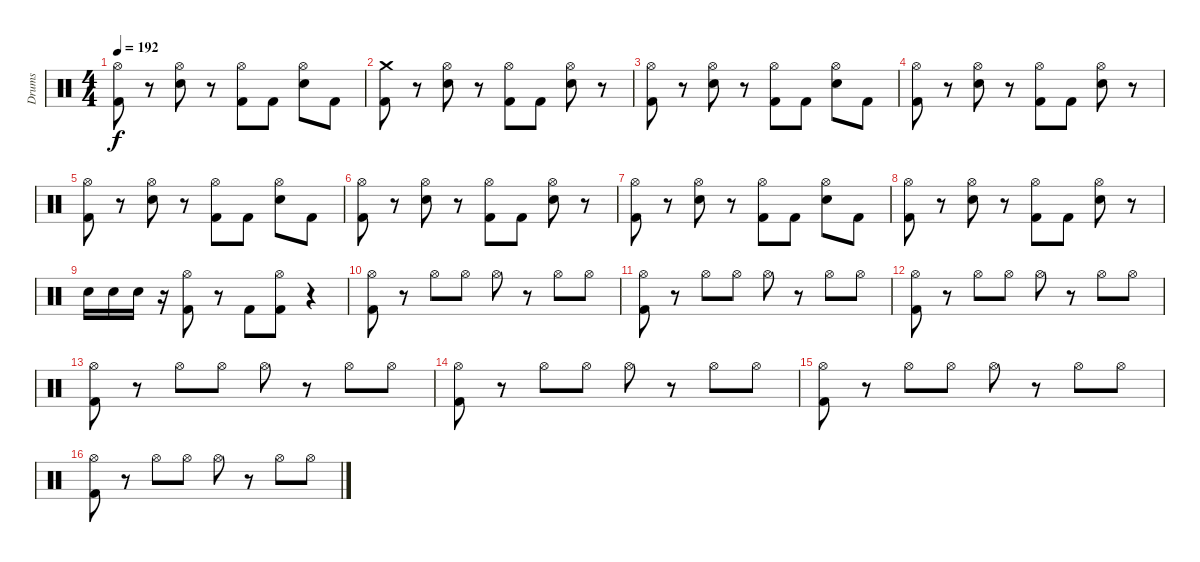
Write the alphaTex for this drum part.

\track ("Drums" "Drums") {instrument percussion}
\staff {score}
\articulation defaults
\ts (4 4)
\tempo 192
\clef neutral
\ks c
("Hi-Hat (open)" "Kick (hit) 2").8{dy f} r.8 ("Hi-Hat (open)" "Electric Snare (hit)").8 r.8 ("Hi-Hat (open)" "Kick (hit) 2").8 "Kick (hit) 2".8 ("Hi-Hat (open)" "Electric Snare (hit)").8 "Kick (hit) 2".8 |
("Crash medium (hit)" "Kick (hit) 2").8 r.8 ("Hi-Hat (open)" "Electric Snare (hit)").8 r.8 ("Hi-Hat (open)" "Kick (hit) 2").8 "Kick (hit) 2".8 ("Hi-Hat (open)" "Electric Snare (hit)").8 r.8 |
("Hi-Hat (open)" "Kick (hit) 2").8 r.8 ("Hi-Hat (open)" "Electric Snare (hit)").8 r.8 ("Hi-Hat (open)" "Kick (hit) 2").8 "Kick (hit) 2".8 ("Hi-Hat (open)" "Electric Snare (hit)").8 "Kick (hit) 2".8 |
("Hi-Hat (open)" "Kick (hit) 2").8 r.8 ("Hi-Hat (open)" "Electric Snare (hit)").8 r.8 ("Hi-Hat (open)" "Kick (hit) 2").8 "Kick (hit) 2".8 ("Hi-Hat (open)" "Electric Snare (hit)").8 r.8 |
("Hi-Hat (open)" "Kick (hit) 2").8 r.8 ("Hi-Hat (open)" "Electric Snare (hit)").8 r.8 ("Hi-Hat (open)" "Kick (hit) 2").8 "Kick (hit) 2".8 ("Hi-Hat (open)" "Electric Snare (hit)").8 "Kick (hit) 2".8 |
("Hi-Hat (open)" "Kick (hit) 2").8 r.8 ("Hi-Hat (open)" "Electric Snare (hit)").8 r.8 ("Hi-Hat (open)" "Kick (hit) 2").8 "Kick (hit) 2".8 ("Hi-Hat (open)" "Electric Snare (hit)").8 r.8 |
("Hi-Hat (open)" "Kick (hit) 2").8 r.8 ("Hi-Hat (open)" "Electric Snare (hit)").8 r.8 ("Hi-Hat (open)" "Kick (hit) 2").8 "Kick (hit) 2".8 ("Hi-Hat (open)" "Electric Snare (hit)").8 "Kick (hit) 2".8 |
("Hi-Hat (open)" "Kick (hit) 2").8 r.8 ("Hi-Hat (open)" "Electric Snare (hit)").8 r.8 ("Hi-Hat (open)" "Kick (hit) 2").8 "Kick (hit) 2".8 ("Hi-Hat (open)" "Electric Snare (hit)").8 r.8 |
"Snare (hit) 2".16 "Snare (hit) 2".16 "Electric Snare (hit)".16 r.16 ("Hi-Hat (open)" "Kick (hit) 2").8 r.8 "Kick (hit) 2".8 ("Hi-Hat (open)" "Kick (hit) 2").8 r.4 |
("Kick (hit) 2" "Hi-Hat (open)").8 r.8 "Hi-Hat (open)".8 "Hi-Hat (open)".8 "Hi-Hat (open)".8 r.8 "Hi-Hat (open)".8 "Hi-Hat (open)".8 |
("Kick (hit) 2" "Hi-Hat (open)").8 r.8 "Hi-Hat (open)".8 "Hi-Hat (open)".8 "Hi-Hat (open)".8 r.8 "Hi-Hat (open)".8 "Hi-Hat (open)".8 |
("Kick (hit) 2" "Hi-Hat (open)").8 r.8 "Hi-Hat (open)".8 "Hi-Hat (open)".8 "Hi-Hat (open)".8 r.8 "Hi-Hat (open)".8 "Hi-Hat (open)".8 |
("Kick (hit) 2" "Hi-Hat (open)").8 r.8 "Hi-Hat (open)".8 "Hi-Hat (open)".8 "Hi-Hat (open)".8 r.8 "Hi-Hat (open)".8 "Hi-Hat (open)".8 |
("Kick (hit) 2" "Hi-Hat (open)").8 r.8 "Hi-Hat (open)".8 "Hi-Hat (open)".8 "Hi-Hat (open)".8 r.8 "Hi-Hat (open)".8 "Hi-Hat (open)".8 |
("Kick (hit) 2" "Hi-Hat (open)").8 r.8 "Hi-Hat (open)".8 "Hi-Hat (open)".8 "Hi-Hat (open)".8 r.8 "Hi-Hat (open)".8 "Hi-Hat (open)".8 |
("Kick (hit) 2" "Hi-Hat (open)").8 r.8 "Hi-Hat (open)".8 "Hi-Hat (open)".8 "Hi-Hat (open)".8 r.8 "Hi-Hat (open)".8 "Hi-Hat (open)".8
